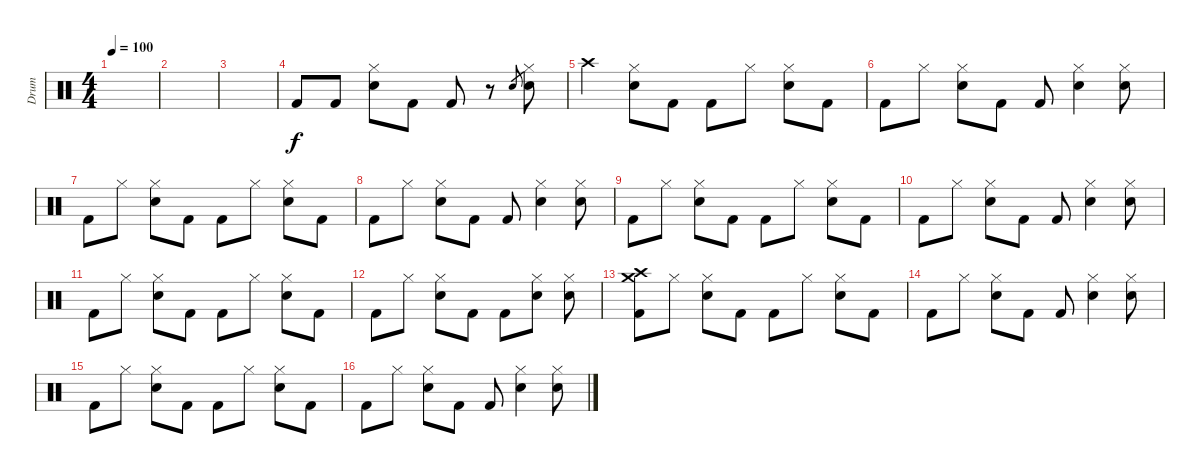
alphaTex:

\track ("Drum" "Drum") {instrument percussion}
\staff {score}
\articulation defaults
\ts (4 4)
\tempo 100
\clef neutral
\ks c
|
|
|
"Kick (hit) 2".8 "Kick (hit) 2".8 ("Hi-Hat (closed)" "Electric Snare (hit)").8 "Kick (hit) 2".8 "Kick (hit) 2".8 r.8 "Electric Snare (hit)".8{gr} ("Hi-Hat (closed)" "Electric Snare (hit)").8 |
"Crash high (hit)".4 ("Hi-Hat (closed)" "Electric Snare (hit)").8 "Kick (hit) 2".8 "Kick (hit) 2".8 "Hi-Hat (closed)".8 ("Hi-Hat (closed)" "Electric Snare (hit)").8 "Kick (hit) 2".8 |
"Kick (hit) 2".8 "Hi-Hat (closed)".8 ("Hi-Hat (closed)" "Electric Snare (hit)").8 "Kick (hit) 2".8 "Kick (hit) 2".8 ("Hi-Hat (closed)" "Electric Snare (hit)").4 ("Hi-Hat (closed)" "Electric Snare (hit)").8 |
"Kick (hit) 2".8 "Hi-Hat (closed)".8 ("Hi-Hat (closed)" "Electric Snare (hit)").8 "Kick (hit) 2".8 "Kick (hit) 2".8 "Hi-Hat (closed)".8 ("Hi-Hat (closed)" "Electric Snare (hit)").8 "Kick (hit) 2".8 |
"Kick (hit) 2".8 "Hi-Hat (closed)".8 ("Hi-Hat (closed)" "Electric Snare (hit)").8 "Kick (hit) 2".8 "Kick (hit) 2".8 ("Hi-Hat (closed)" "Electric Snare (hit)").4 ("Hi-Hat (closed)" "Electric Snare (hit)").8 |
"Kick (hit) 2".8 "Hi-Hat (closed)".8 ("Hi-Hat (closed)" "Electric Snare (hit)").8 "Kick (hit) 2".8 "Kick (hit) 2".8 "Hi-Hat (closed)".8 ("Hi-Hat (closed)" "Electric Snare (hit)").8 "Kick (hit) 2".8 |
"Kick (hit) 2".8 "Hi-Hat (closed)".8 ("Hi-Hat (closed)" "Electric Snare (hit)").8 "Kick (hit) 2".8 "Kick (hit) 2".8 ("Hi-Hat (closed)" "Electric Snare (hit)").4 ("Hi-Hat (closed)" "Electric Snare (hit)").8 |
"Kick (hit) 2".8 "Hi-Hat (closed)".8 ("Hi-Hat (closed)" "Electric Snare (hit)").8 "Kick (hit) 2".8 "Kick (hit) 2".8 "Hi-Hat (closed)".8 ("Hi-Hat (closed)" "Electric Snare (hit)").8 "Kick (hit) 2".8 |
"Kick (hit) 2".8 "Hi-Hat (closed)".8 ("Hi-Hat (closed)" "Electric Snare (hit)").8 "Kick (hit) 2".8 "Kick (hit) 2".8 ("Hi-Hat (closed)" "Electric Snare (hit)").8 ("Hi-Hat (closed)" "Electric Snare (hit)").8 |
("Crash high (hit)" "Crash medium (hit)" "Kick (hit) 2").8 "Hi-Hat (closed)".8 ("Hi-Hat (closed)" "Electric Snare (hit)").8 "Kick (hit) 2".8 "Kick (hit) 2".8 "Hi-Hat (closed)".8 ("Hi-Hat (closed)" "Electric Snare (hit)").8 "Kick (hit) 2".8 |
"Kick (hit) 2".8 "Hi-Hat (closed)".8 ("Hi-Hat (closed)" "Electric Snare (hit)").8 "Kick (hit) 2".8 "Kick (hit) 2".8 ("Hi-Hat (closed)" "Electric Snare (hit)").4 ("Hi-Hat (closed)" "Electric Snare (hit)").8 |
"Kick (hit) 2".8 "Hi-Hat (closed)".8 ("Hi-Hat (closed)" "Electric Snare (hit)").8 "Kick (hit) 2".8 "Kick (hit) 2".8 "Hi-Hat (closed)".8 ("Hi-Hat (closed)" "Electric Snare (hit)").8 "Kick (hit) 2".8 |
"Kick (hit) 2".8 "Hi-Hat (closed)".8 ("Hi-Hat (closed)" "Electric Snare (hit)").8 "Kick (hit) 2".8 "Kick (hit) 2".8 ("Hi-Hat (closed)" "Electric Snare (hit)").4 ("Hi-Hat (closed)" "Electric Snare (hit)").8
